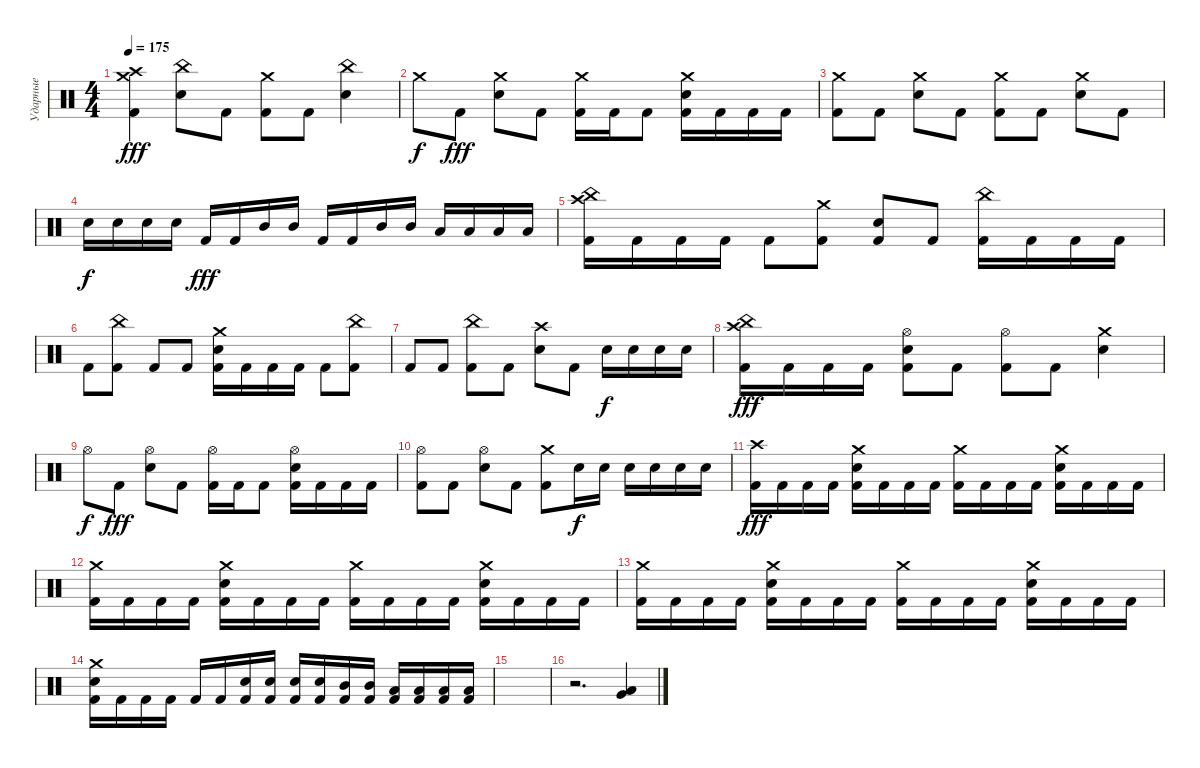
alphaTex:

\track ("Ударные" "Ударные") {instrument percussion}
\staff {score}
\articulation defaults
\ts (4 4)
\tempo 175
\clef neutral
\ks c
("Crash high (hit)" "Crash medium (hit)" "Kick (hit) 2").4{dy fff} ("China (hit)" "Electric Snare (hit)").8 "Kick (hit) 2".8 ("Crash medium (hit)" "Kick (hit) 2").8 "Kick (hit) 2".8 ("China (hit)" "Electric Snare (hit)").4 |
"Crash medium (hit)".8{dy f} "Kick (hit) 2".8{dy fff} ("Crash medium (hit)" "Electric Snare (hit)").8 "Kick (hit) 2".8 ("Crash medium (hit)" "Kick (hit) 2").16 "Kick (hit) 2".16 "Kick (hit) 2".8 ("Crash medium (hit)" "Electric Snare (hit)" "Kick (hit) 2").16 "Kick (hit) 2".16 "Kick (hit) 2".16 "Kick (hit) 2".16 |
("Crash medium (hit)" "Kick (hit) 2").8 "Kick (hit) 2".8 ("Crash medium (hit)" "Electric Snare (hit)").8 "Kick (hit) 2".8 ("Crash medium (hit)" "Kick (hit) 2").8 "Kick (hit) 2".8 ("Crash medium (hit)" "Electric Snare (hit)").8 "Kick (hit) 2".8 |
"Electric Snare (hit)".16{dy f} "Electric Snare (hit)".16 "Electric Snare (hit)".16 "Electric Snare (hit)".16 "Kick (hit) 2".16{dy fff} "Kick (hit) 2".16 "Mid Tom (hit)".16 "Mid Tom (hit)".16 "Kick (hit) 2".16 "Kick (hit) 2".16 "Mid Tom (hit)".16 "Mid Tom (hit)".16 "Low Tom (hit)".16 "Low Tom (hit)".16 "Low Floor Tom (hit)".16 "Low Floor Tom (hit)".16 |
("Crash high (hit)" "China (hit)" "Kick (hit) 2").16 "Kick (hit) 2".16 "Kick (hit) 2".16 "Kick (hit) 2".16 "Kick (hit) 2".8 ("Crash medium (hit)" "Kick (hit) 2").8 ("Electric Snare (hit)" "Kick (hit) 2").8 "Kick (hit) 2".8 ("China (hit)" "Kick (hit) 2").16 "Kick (hit) 2".16 "Kick (hit) 2".16 "Kick (hit) 2".16 |
"Kick (hit) 2".8 ("China (hit)" "Kick (hit) 2").8 "Kick (hit) 2".8 "Kick (hit) 2".8 ("Crash medium (hit)" "Electric Snare (hit)" "Kick (hit) 2").16 "Kick (hit) 2".16 "Kick (hit) 2".16 "Kick (hit) 2".16 "Kick (hit) 2".8 ("China (hit)" "Kick (hit) 2").8 |
"Kick (hit) 2".8 "Kick (hit) 2".8 ("China (hit)" "Kick (hit) 2").8 "Kick (hit) 2".8 ("Crash high (hit)" "Electric Snare (hit)").8 "Kick (hit) 2".8 "Electric Snare (hit)".16{dy f} "Electric Snare (hit)".16 "Electric Snare (hit)".16 "Electric Snare (hit)".16 |
("Crash high (hit)" "China (hit)" "Kick (hit) 2").16{dy fff} "Kick (hit) 2".16 "Kick (hit) 2".16 "Kick (hit) 2".16 ("Hi-Hat (open)" "Electric Snare (hit)" "Kick (hit) 2").8 "Kick (hit) 2".8 ("Hi-Hat (open)" "Kick (hit) 2").8 "Kick (hit) 2".8 ("Crash medium (hit)" "Electric Snare (hit)").4 |
"Hi-Hat (open)".8{dy f} "Kick (hit) 2".8{dy fff} ("Hi-Hat (open)" "Electric Snare (hit)").8 "Kick (hit) 2".8 ("Hi-Hat (open)" "Kick (hit) 2").16 "Kick (hit) 2".16 "Kick (hit) 2".8 ("Hi-Hat (open)" "Electric Snare (hit)" "Kick (hit) 2").16 "Kick (hit) 2".16 "Kick (hit) 2".16 "Kick (hit) 2".16 |
("Hi-Hat (open)" "Kick (hit) 2").8 "Kick (hit) 2".8 ("Hi-Hat (open)" "Electric Snare (hit)").8 "Kick (hit) 2".8 ("Crash medium (hit)" "Kick (hit) 2").8 "Electric Snare (hit)".16{dy f} "Electric Snare (hit)".16 "Electric Snare (hit)".16 "Electric Snare (hit)".16 "Electric Snare (hit)".16 "Electric Snare (hit)".16 |
("Crash high (hit)" "Kick (hit) 2").16{dy fff} "Kick (hit) 2".16 "Kick (hit) 2".16 "Kick (hit) 2".16 ("Crash medium (hit)" "Electric Snare (hit)" "Kick (hit) 2").16 "Kick (hit) 2".16 "Kick (hit) 2".16 "Kick (hit) 2".16 ("Crash medium (hit)" "Kick (hit) 2").16 "Kick (hit) 2".16 "Kick (hit) 2".16 "Kick (hit) 2".16 ("Crash medium (hit)" "Electric Snare (hit)" "Kick (hit) 2").16 "Kick (hit) 2".16 "Kick (hit) 2".16 "Kick (hit) 2".16 |
("Crash medium (hit)" "Kick (hit) 2").16 "Kick (hit) 2".16 "Kick (hit) 2".16 "Kick (hit) 2".16 ("Crash medium (hit)" "Electric Snare (hit)" "Kick (hit) 2").16 "Kick (hit) 2".16 "Kick (hit) 2".16 "Kick (hit) 2".16 ("Crash medium (hit)" "Kick (hit) 2").16 "Kick (hit) 2".16 "Kick (hit) 2".16 "Kick (hit) 2".16 ("Crash medium (hit)" "Electric Snare (hit)" "Kick (hit) 2").16 "Kick (hit) 2".16 "Kick (hit) 2".16 "Kick (hit) 2".16 |
("Crash medium (hit)" "Kick (hit) 2").16 "Kick (hit) 2".16 "Kick (hit) 2".16 "Kick (hit) 2".16 ("Crash medium (hit)" "Electric Snare (hit)" "Kick (hit) 2").16 "Kick (hit) 2".16 "Kick (hit) 2".16 "Kick (hit) 2".16 ("Crash medium (hit)" "Kick (hit) 2").16 "Kick (hit) 2".16 "Kick (hit) 2".16 "Kick (hit) 2".16 ("Crash medium (hit)" "Electric Snare (hit)" "Kick (hit) 2").16 "Kick (hit) 2".16 "Kick (hit) 2".16 "Kick (hit) 2".16 |
("Crash medium (hit)" "Electric Snare (hit)" "Kick (hit) 2").16 "Kick (hit) 2".16 "Kick (hit) 2".16 "Kick (hit) 2".16 "Kick (hit) 2".16 "Kick (hit) 2".16 ("Electric Snare (hit)" "Kick (hit) 2").16 ("Electric Snare (hit)" "Kick (hit) 2").16 ("Electric Snare (hit)" "Kick (hit) 2").16 ("Electric Snare (hit)" "Kick (hit) 2").16 ("Mid Tom (hit)" "Kick (hit) 2").16 ("Mid Tom (hit)" "Kick (hit) 2").16 ("Low Tom (hit)" "Kick (hit) 2").16 ("Low Tom (hit)" "Kick (hit) 2").16 ("Low Floor Tom (hit)" "Kick (hit) 2").16 ("Low Floor Tom (hit)" "Kick (hit) 2").16 |
|
r.2{d} ("Very Low Tom (hit)" "Low Floor Tom (hit)").4
